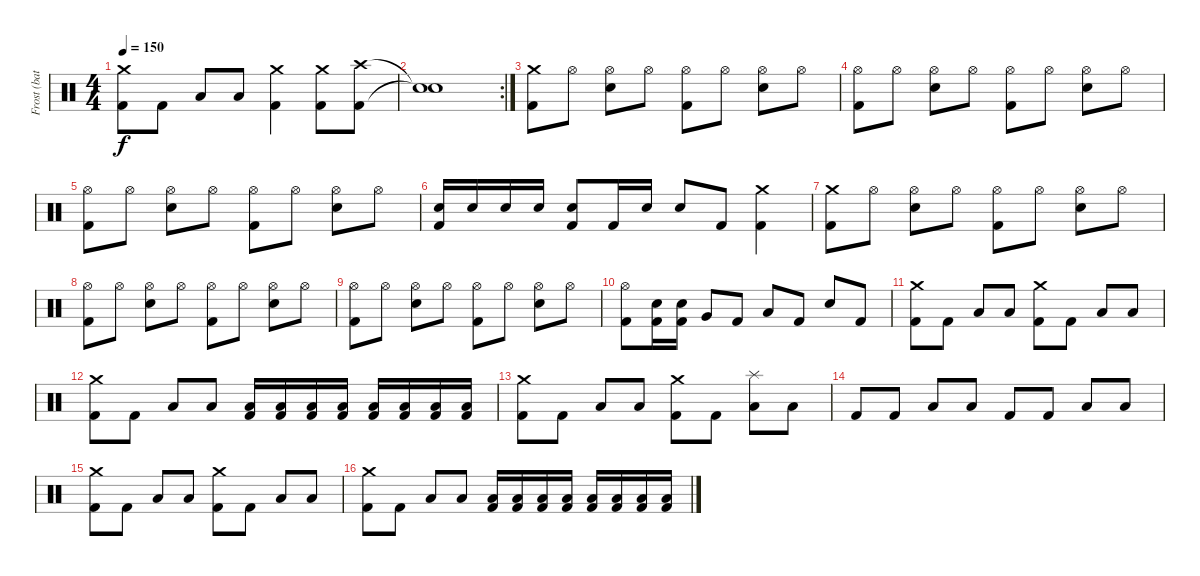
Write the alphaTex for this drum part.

\track ("Frost (battery)" "Frost (bat") {instrument percussion}
\staff {score}
\articulation defaults
\ts (4 4)
\tempo 150
\clef neutral
\ks c
("Crash medium (hit)" "Kick (hit) 2").8{dy f} "Kick (hit) 2".8 "Low Floor Tom (hit)".8 "Low Floor Tom (hit)".8 ("Crash medium (hit)" "Kick (hit) 2").4 ("Crash medium (hit)" "Kick (hit) 2").8 ("Crash high (hit)" "Kick (hit) 2").8 |
\rc 2
("Snare (hit)"{t} "Snare (hit)"{t}).1 |
("Crash medium (hit)" "Kick (hit) 2").8 "Hi-Hat (open)".8 ("Hi-Hat (open)" "Electric Snare (hit)").8 "Hi-Hat (open)".8 ("Hi-Hat (open)" "Kick (hit) 2").8 "Hi-Hat (open)".8 ("Hi-Hat (open)" "Electric Snare (hit)").8 "Hi-Hat (open)".8 |
("Hi-Hat (open)" "Kick (hit) 2").8 "Hi-Hat (open)".8 ("Hi-Hat (open)" "Electric Snare (hit)").8 "Hi-Hat (open)".8 ("Hi-Hat (open)" "Kick (hit) 2").8 "Hi-Hat (open)".8 ("Hi-Hat (open)" "Electric Snare (hit)").8 "Hi-Hat (open)".8 |
("Hi-Hat (open)" "Kick (hit) 2").8 "Hi-Hat (open)".8 ("Hi-Hat (open)" "Electric Snare (hit)").8 "Hi-Hat (open)".8 ("Hi-Hat (open)" "Kick (hit) 2").8 "Hi-Hat (open)".8 ("Hi-Hat (open)" "Electric Snare (hit)").8 "Hi-Hat (open)".8 |
("Electric Snare (hit)" "Kick (hit) 2").16 "Electric Snare (hit)".16 "Electric Snare (hit)".16 "Electric Snare (hit)".16 ("Electric Snare (hit)" "Kick (hit) 2").8 "Kick (hit) 2".16 "Electric Snare (hit)".16 "Electric Snare (hit)".8 "Kick (hit) 2".8 ("Crash medium (hit)" "Kick (hit) 2").4 |
("Crash medium (hit)" "Kick (hit) 2").8 "Hi-Hat (open)".8 ("Hi-Hat (open)" "Electric Snare (hit)").8 "Hi-Hat (open)".8 ("Hi-Hat (open)" "Kick (hit) 2").8 "Hi-Hat (open)".8 ("Hi-Hat (open)" "Electric Snare (hit)").8 "Hi-Hat (open)".8 |
("Hi-Hat (open)" "Kick (hit) 2").8 "Hi-Hat (open)".8 ("Hi-Hat (open)" "Electric Snare (hit)").8 "Hi-Hat (open)".8 ("Hi-Hat (open)" "Kick (hit) 2").8 "Hi-Hat (open)".8 ("Hi-Hat (open)" "Electric Snare (hit)").8 "Hi-Hat (open)".8 |
("Hi-Hat (open)" "Kick (hit) 2").8 "Hi-Hat (open)".8 ("Hi-Hat (open)" "Electric Snare (hit)").8 "Hi-Hat (open)".8 ("Hi-Hat (open)" "Kick (hit) 2").8 "Hi-Hat (open)".8 ("Hi-Hat (open)" "Electric Snare (hit)").8 "Hi-Hat (open)".8 |
("Hi-Hat (open)" "Kick (hit) 2").8 ("Electric Snare (hit)" "Kick (hit) 2").16 ("Electric Snare (hit)" "Kick (hit) 2").16 "Very Low Tom (hit)".8 "Kick (hit) 2".8 "Low Floor Tom (hit)".8 "Kick (hit) 2".8 "Snare (hit) 2".8 "Kick (hit) 2".8 |
("Crash medium (hit)" "Kick (hit) 2").8 "Kick (hit) 2".8 "Low Floor Tom (hit)".8 "Low Floor Tom (hit)".8 ("Crash medium (hit)" "Kick (hit) 2").8 "Kick (hit) 2".8 "Low Floor Tom (hit)".8 "Low Floor Tom (hit)".8 |
("Crash medium (hit)" "Kick (hit) 2").8 "Kick (hit) 2".8 "Low Floor Tom (hit)".8 "Low Floor Tom (hit)".8 ("Low Floor Tom (hit)" "Kick (hit) 2").16 ("Low Floor Tom (hit)" "Kick (hit) 2").16 ("Low Floor Tom (hit)" "Kick (hit) 2").16 ("Low Floor Tom (hit)" "Kick (hit) 2").16 ("Low Floor Tom (hit)" "Kick (hit) 2").16 ("Low Floor Tom (hit)" "Kick (hit) 2").16 ("Low Floor Tom (hit)" "Kick (hit) 2").16 ("Low Floor Tom (hit)" "Kick (hit) 2").16 |
("Crash medium (hit)" "Kick (hit) 2").8 "Kick (hit) 2".8 "Low Floor Tom (hit)".8 "Low Floor Tom (hit)".8 ("Crash medium (hit)" "Kick (hit) 2").8 "Kick (hit) 2".8 ("Splash (hit)" "Low Floor Tom (hit)").8 "Low Floor Tom (hit)".8 |
"Kick (hit) 2".8 "Kick (hit) 2".8 "Low Floor Tom (hit)".8 "Low Floor Tom (hit)".8 "Kick (hit) 2".8 "Kick (hit) 2".8 "Low Floor Tom (hit)".8 "Low Floor Tom (hit)".8 |
("Crash medium (hit)" "Kick (hit) 2").8 "Kick (hit) 2".8 "Low Floor Tom (hit)".8 "Low Floor Tom (hit)".8 ("Crash medium (hit)" "Kick (hit) 2").8 "Kick (hit) 2".8 "Low Floor Tom (hit)".8 "Low Floor Tom (hit)".8 |
("Crash medium (hit)" "Kick (hit) 2").8 "Kick (hit) 2".8 "Low Floor Tom (hit)".8 "Low Floor Tom (hit)".8 ("Low Floor Tom (hit)" "Kick (hit) 2").16 ("Low Floor Tom (hit)" "Kick (hit) 2").16 ("Low Floor Tom (hit)" "Kick (hit) 2").16 ("Low Floor Tom (hit)" "Kick (hit) 2").16 ("Low Floor Tom (hit)" "Kick (hit) 2").16 ("Low Floor Tom (hit)" "Kick (hit) 2").16 ("Low Floor Tom (hit)" "Kick (hit) 2").16 ("Low Floor Tom (hit)" "Kick (hit) 2").16
